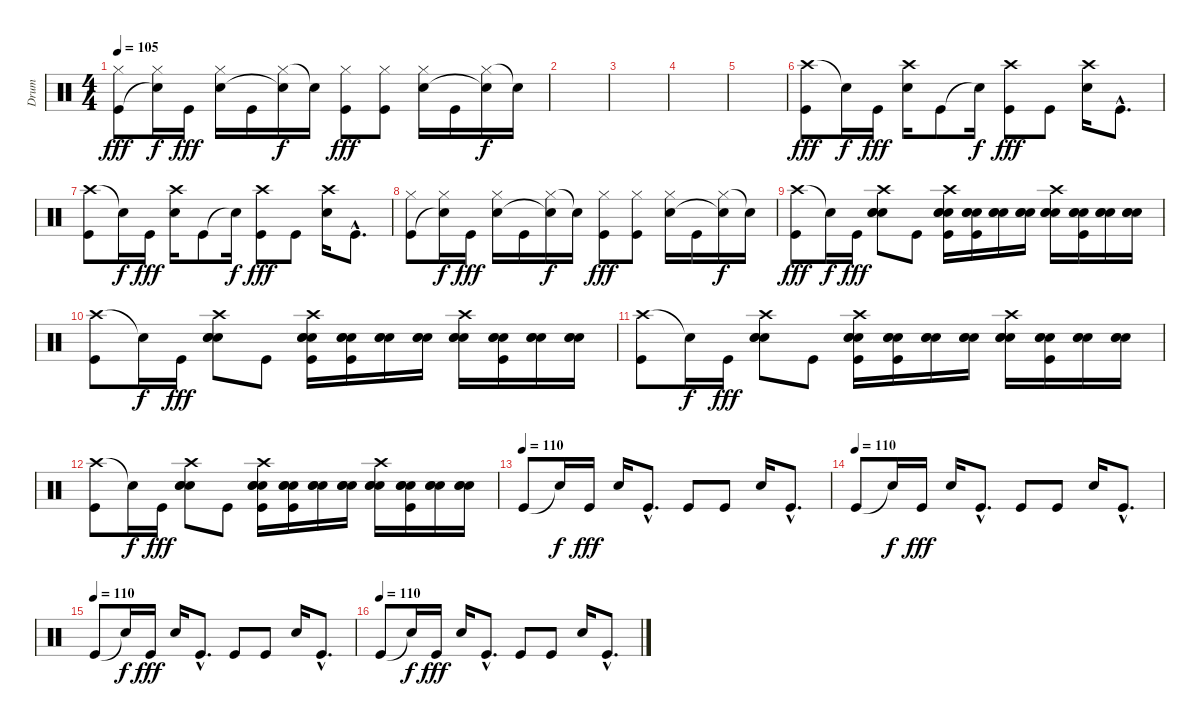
\track ("Drum" "Drum") {instrument percussion}
\staff {score}
\articulation defaults
\ts (4 4)
\tempo 105
\clef neutral
\ks c
("Hi-Hat (closed)" "Kick (hit)").8{dy fff} ("Hi-Hat (closed)" "Snare (hit)"{t}).16{dy f} "Kick (hit)".16{dy fff} ("Hi-Hat (closed)" "Electric Snare (hit)").16 "Kick (hit)".16 ("Hi-Hat (closed)" "Snare (hit)"{t}).16{dy f} "Snare (hit)"{t}.16 ("Hi-Hat (closed)" "Kick (hit)").8{dy fff} ("Hi-Hat (closed)" "Kick (hit)").8 ("Hi-Hat (closed)" "Electric Snare (hit)").16 "Kick (hit)".16 ("Hi-Hat (closed)" "Snare (hit)"{t}).16{dy f} "Snare (hit)"{t}.16 |
|
|
|
|
("Crash high (hit)" "Kick (hit)").8{dy fff} "Snare (hit)"{t}.16{dy f} "Kick (hit)".16{dy fff} ("Crash high (hit)" "Electric Snare (hit)").16 "Kick (hit)".8 "Snare (hit)"{t}.16{dy f} ("Crash high (hit)" "Kick (hit)").8{dy fff} "Kick (hit)".8 ("Crash high (hit)" "Electric Snare (hit)").16 "Kick (hit)"{hac}.8{d} |
("Crash high (hit)" "Kick (hit)").8 "Snare (hit)"{t}.16{dy f} "Kick (hit)".16{dy fff} ("Crash high (hit)" "Electric Snare (hit)").16 "Kick (hit)".8 "Snare (hit)"{t}.16{dy f} ("Crash high (hit)" "Kick (hit)").8{dy fff} "Kick (hit)".8 ("Crash high (hit)" "Electric Snare (hit)").16 "Kick (hit)"{hac}.8{d} |
("Hi-Hat (closed)" "Kick (hit)").8 ("Hi-Hat (closed)" "Snare (hit)"{t}).16{dy f} "Kick (hit)".16{dy fff} ("Hi-Hat (closed)" "Electric Snare (hit)").16 "Kick (hit)".16 ("Hi-Hat (closed)" "Snare (hit)"{t}).16{dy f} "Snare (hit)"{t}.16 ("Hi-Hat (closed)" "Kick (hit)").8{dy fff} ("Hi-Hat (closed)" "Kick (hit)").8 ("Hi-Hat (closed)" "Electric Snare (hit)").16 "Kick (hit)".16 ("Hi-Hat (closed)" "Snare (hit)"{t}).16{dy f} "Snare (hit)"{t}.16 |
("Crash high (hit)" "Kick (hit)").8{dy fff} "Snare (hit)"{t}.16{dy f} "Kick (hit)".16{dy fff} ("Crash high (hit)" "Electric Snare (hit)" "Electric Snare (hit)" "Electric Snare (hit)").8 "Kick (hit)".8 ("Crash high (hit)" "Electric Snare (hit)" "Electric Snare (hit)" "Electric Snare (hit)" "Kick (hit)").16 ("Electric Snare (hit)" "Electric Snare (hit)" "Electric Snare (hit)" "Kick (hit)").16 ("Electric Snare (hit)" "Electric Snare (hit)" "Electric Snare (hit)").16 ("Electric Snare (hit)" "Electric Snare (hit)" "Electric Snare (hit)").16 ("Crash high (hit)" "Electric Snare (hit)" "Electric Snare (hit)" "Electric Snare (hit)").16 ("Electric Snare (hit)" "Electric Snare (hit)" "Electric Snare (hit)" "Kick (hit)").16 ("Electric Snare (hit)" "Electric Snare (hit)" "Electric Snare (hit)").16 ("Electric Snare (hit)" "Electric Snare (hit)" "Electric Snare (hit)").16 |
("Crash high (hit)" "Kick (hit)").8 "Snare (hit)"{t}.16{dy f} "Kick (hit)".16{dy fff} ("Crash high (hit)" "Electric Snare (hit)" "Electric Snare (hit)" "Electric Snare (hit)").8 "Kick (hit)".8 ("Crash high (hit)" "Electric Snare (hit)" "Electric Snare (hit)" "Electric Snare (hit)" "Kick (hit)").16 ("Electric Snare (hit)" "Electric Snare (hit)" "Electric Snare (hit)" "Kick (hit)").16 ("Electric Snare (hit)" "Electric Snare (hit)" "Electric Snare (hit)").16 ("Electric Snare (hit)" "Electric Snare (hit)" "Electric Snare (hit)").16 ("Crash high (hit)" "Electric Snare (hit)" "Electric Snare (hit)" "Electric Snare (hit)").16 ("Electric Snare (hit)" "Electric Snare (hit)" "Electric Snare (hit)" "Kick (hit)").16 ("Electric Snare (hit)" "Electric Snare (hit)" "Electric Snare (hit)").16 ("Electric Snare (hit)" "Electric Snare (hit)" "Electric Snare (hit)").16 |
("Crash high (hit)" "Kick (hit)").8 "Snare (hit)"{t}.16{dy f} "Kick (hit)".16{dy fff} ("Crash high (hit)" "Electric Snare (hit)" "Electric Snare (hit)" "Electric Snare (hit)").8 "Kick (hit)".8 ("Crash high (hit)" "Electric Snare (hit)" "Electric Snare (hit)" "Electric Snare (hit)" "Kick (hit)").16 ("Electric Snare (hit)" "Electric Snare (hit)" "Electric Snare (hit)" "Kick (hit)").16 ("Electric Snare (hit)" "Electric Snare (hit)" "Electric Snare (hit)").16 ("Electric Snare (hit)" "Electric Snare (hit)" "Electric Snare (hit)").16 ("Crash high (hit)" "Electric Snare (hit)" "Electric Snare (hit)" "Electric Snare (hit)").16 ("Electric Snare (hit)" "Electric Snare (hit)" "Electric Snare (hit)" "Kick (hit)").16 ("Electric Snare (hit)" "Electric Snare (hit)" "Electric Snare (hit)").16 ("Electric Snare (hit)" "Electric Snare (hit)" "Electric Snare (hit)").16 |
("Crash high (hit)" "Kick (hit)").8 "Snare (hit)"{t}.16{dy f} "Kick (hit)".16{dy fff} ("Crash high (hit)" "Electric Snare (hit)" "Electric Snare (hit)" "Electric Snare (hit)").8 "Kick (hit)".8 ("Crash high (hit)" "Electric Snare (hit)" "Electric Snare (hit)" "Electric Snare (hit)" "Kick (hit)").16 ("Electric Snare (hit)" "Electric Snare (hit)" "Electric Snare (hit)" "Kick (hit)").16 ("Electric Snare (hit)" "Electric Snare (hit)" "Electric Snare (hit)").16 ("Electric Snare (hit)" "Electric Snare (hit)" "Electric Snare (hit)").16 ("Crash high (hit)" "Electric Snare (hit)" "Electric Snare (hit)" "Electric Snare (hit)").16 ("Electric Snare (hit)" "Electric Snare (hit)" "Electric Snare (hit)" "Kick (hit)").16 ("Electric Snare (hit)" "Electric Snare (hit)" "Electric Snare (hit)").16 ("Electric Snare (hit)" "Electric Snare (hit)" "Electric Snare (hit)").16 |
\tempo (110)
"Kick (hit)".8 "Snare (hit)"{t}.16{dy f} "Kick (hit)".16{dy fff} "Electric Snare (hit)".16 "Kick (hit)"{hac}.8{d} "Kick (hit)".8 "Kick (hit)".8 "Electric Snare (hit)".16 "Kick (hit)"{hac}.8{d} |
\tempo (110)
"Kick (hit)".8 "Snare (hit)"{t}.16{dy f} "Kick (hit)".16{dy fff} "Electric Snare (hit)".16 "Kick (hit)"{hac}.8{d} "Kick (hit)".8 "Kick (hit)".8 "Electric Snare (hit)".16 "Kick (hit)"{hac}.8{d} |
\tempo (110)
"Kick (hit)".8 "Snare (hit)"{t}.16{dy f} "Kick (hit)".16{dy fff} "Electric Snare (hit)".16 "Kick (hit)"{hac}.8{d} "Kick (hit)".8 "Kick (hit)".8 "Electric Snare (hit)".16 "Kick (hit)"{hac}.8{d} |
\tempo (110)
"Kick (hit)".8 "Snare (hit)"{t}.16{dy f} "Kick (hit)".16{dy fff} "Electric Snare (hit)".16 "Kick (hit)"{hac}.8{d} "Kick (hit)".8 "Kick (hit)".8 "Electric Snare (hit)".16 "Kick (hit)"{hac}.8{d}
